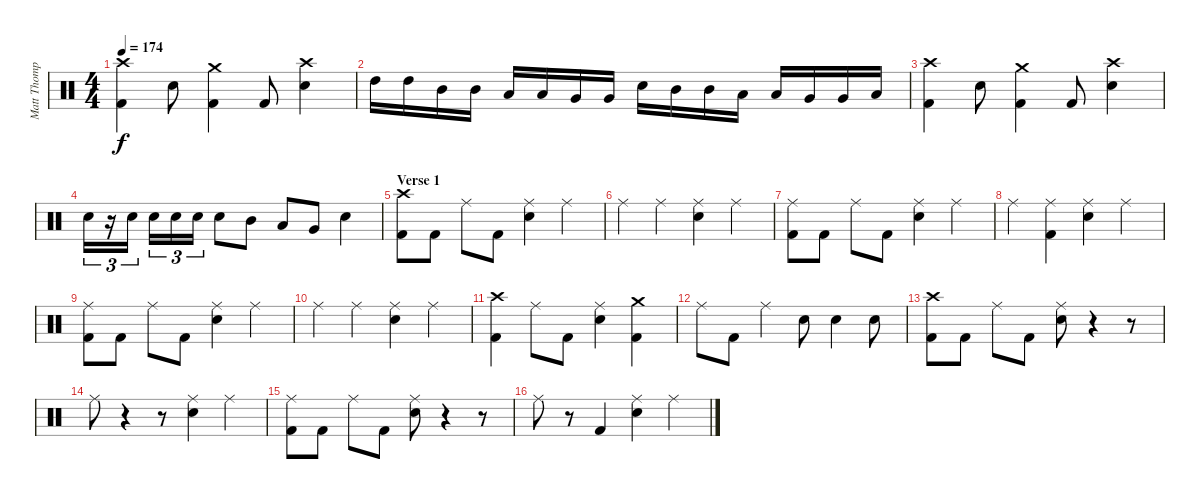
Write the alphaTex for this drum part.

\track ("Matt Thompson" "Matt Thomp") {instrument percussion}
\staff {score}
\articulation defaults
\ts (4 4)
\tempo 174
\clef neutral
\ks c
("Crash high (hit)" "Kick (hit) 2").4{dy f} "Snare (hit) 2".8 ("Crash medium (hit)" "Kick (hit) 2").4 "Kick (hit) 2".8 ("Crash high (hit)" "Snare (hit) 2").4 |
"High Tom (hit)".16 "High Tom (hit)".16 "Mid Tom (hit)".16 "Mid Tom (hit)".16 "Low Tom (hit)".16 "Low Tom (hit)".16 "Very Low Tom (hit)".16 "Very Low Tom (hit)".16 "Snare (hit) 2".16 "Mid Tom (hit)".16 "Mid Tom (hit)".16 "Low Tom (hit)".16 "Low Tom (hit)".16 "Very Low Tom (hit)".16 "Very Low Tom (hit)".16 "Low Floor Tom (hit)".16 |
("Crash high (hit)" "Kick (hit) 2").4 "Snare (hit) 2".8 ("Crash medium (hit)" "Kick (hit) 2").4 "Kick (hit) 2".8 ("Crash high (hit)" "Snare (hit) 2").4 |
"Snare (hit) 2".16{tu (3 2)} r.16{tu (3 2)} "Snare (hit) 2".16{tu (3 2)} "Snare (hit) 2".16{tu (3 2)} "Snare (hit) 2".16{tu (3 2)} "Snare (hit) 2".16{tu (3 2)} "Snare (hit) 2".8 "Mid Tom (hit)".8 "Low Tom (hit)".8 "Very Low Tom (hit)".8 "Snare (hit) 2".4 |
\section ("" "Verse 1")
("Crash high (hit)" "Kick (hit) 2").8 "Kick (hit) 2".8 "Ride (middle)".8 "Kick (hit) 2".8 ("Ride (middle)" "Snare (hit) 2").4 "Ride (middle)".4 |
"Ride (middle)".4 "Ride (middle)".4 ("Ride (middle)" "Snare (hit) 2").4 "Ride (middle)".4 |
("Ride (middle)" "Kick (hit) 2").8 "Kick (hit) 2".8 "Ride (middle)".8 "Kick (hit) 2".8 ("Ride (middle)" "Snare (hit) 2").4 "Ride (middle)".4 |
"Ride (middle)".4 ("Ride (middle)" "Kick (hit) 2").4 ("Ride (middle)" "Snare (hit) 2").4 "Ride (middle)".4 |
("Ride (middle)" "Kick (hit) 2").8 "Kick (hit) 2".8 "Ride (middle)".8 "Kick (hit) 2".8 ("Ride (middle)" "Snare (hit) 2").4 "Ride (middle)".4 |
"Ride (middle)".4 "Ride (middle)".4 ("Ride (middle)" "Snare (hit) 2").4 "Ride (middle)".4 |
("Crash high (hit)" "Kick (hit) 2").4 "Ride (middle)".8 "Kick (hit) 2".8 ("Ride (middle)" "Snare (hit) 2").4 ("Crash medium (hit)" "Kick (hit) 2").4 |
"Ride (middle)".8 "Kick (hit) 2".8 "Ride (middle)".4 "Snare (hit) 2".8 "Snare (hit) 2".4 "Snare (hit) 2".8 |
("Crash high (hit)" "Kick (hit) 2").8 "Kick (hit) 2".8 "Ride (middle)".8 "Kick (hit) 2".8 ("Ride (middle)" "Snare (hit) 2").8 r.4 r.8 |
"Ride (middle)".8 r.4 r.8 ("Ride (middle)" "Snare (hit) 2").4 "Ride (middle)".4 |
("Ride (middle)" "Kick (hit) 2").8 "Kick (hit) 2".8 "Ride (middle)".8 "Kick (hit) 2".8 ("Ride (middle)" "Snare (hit) 2").8 r.4 r.8 |
"Ride (middle)".8 r.8 "Kick (hit) 2".4 ("Ride (middle)" "Snare (hit) 2").4 "Ride (middle)".4
